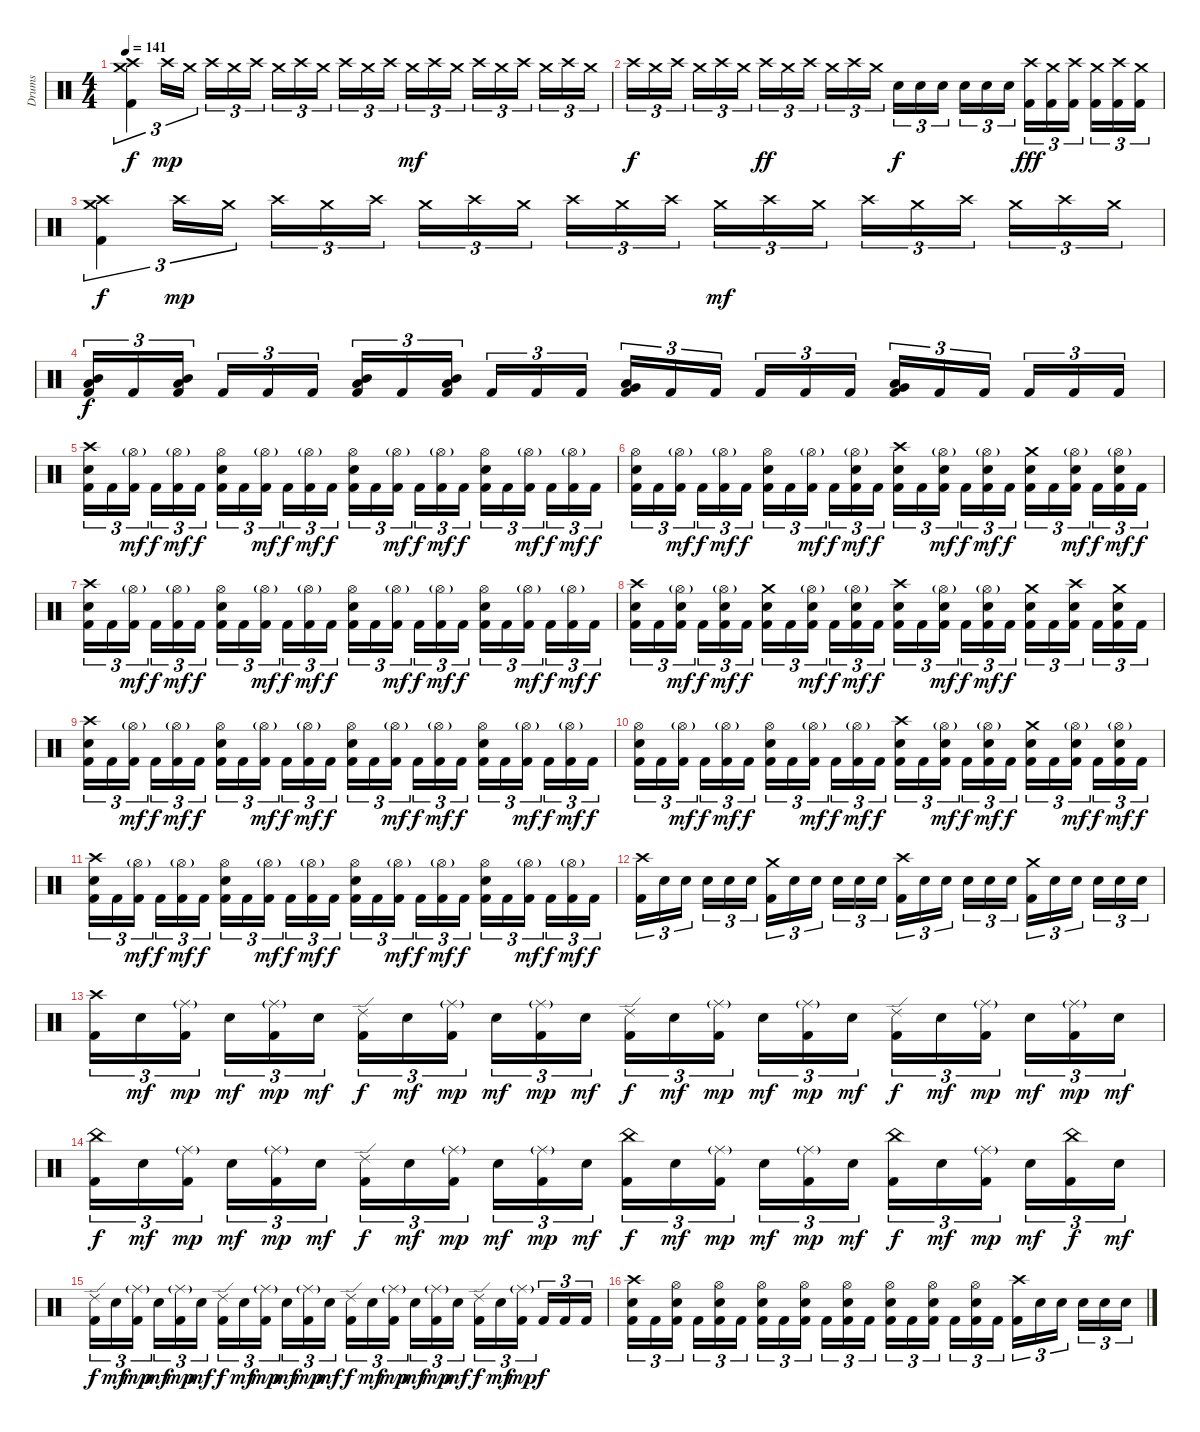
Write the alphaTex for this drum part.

\track ("Drums" "Drums") {instrument percussion}
\staff {score}
\articulation defaults
\ts (4 4)
\tempo 141
\clef neutral
\ks c
("Crash medium (hit)" "Crash high (hit)" "Kick (hit) 2").4{tu (3 2) dy f} "Crash high (hit)".16{tu (3 2) dy mp} "Crash medium (hit)".16{tu (3 2)} "Crash high (hit)".16{tu (3 2)} "Crash medium (hit)".16{tu (3 2)} "Crash high (hit)".16{tu (3 2)} "Crash medium (hit)".16{tu (3 2)} "Crash high (hit)".16{tu (3 2)} "Crash medium (hit)".16{tu (3 2)} "Crash high (hit)".16{tu (3 2)} "Crash medium (hit)".16{tu (3 2)} "Crash high (hit)".16{tu (3 2)} "Crash medium (hit)".16{tu (3 2) dy mf} "Crash high (hit)".16{tu (3 2)} "Crash medium (hit)".16{tu (3 2)} "Crash high (hit)".16{tu (3 2)} "Crash medium (hit)".16{tu (3 2)} "Crash high (hit)".16{tu (3 2)} "Crash medium (hit)".16{tu (3 2)} "Crash high (hit)".16{tu (3 2)} "Crash medium (hit)".16{tu (3 2)} |
"Crash high (hit)".16{tu (3 2) dy f} "Crash medium (hit)".16{tu (3 2)} "Crash high (hit)".16{tu (3 2)} "Crash medium (hit)".16{tu (3 2)} "Crash high (hit)".16{tu (3 2)} "Crash medium (hit)".16{tu (3 2)} "Crash high (hit)".16{tu (3 2) dy ff} "Crash medium (hit)".16{tu (3 2)} "Crash high (hit)".16{tu (3 2)} "Crash medium (hit)".16{tu (3 2)} "Crash high (hit)".16{tu (3 2)} "Crash medium (hit)".16{tu (3 2)} "Electric Snare (hit)".16{tu (3 2) dy f} "Electric Snare (hit)".16{tu (3 2)} "Electric Snare (hit)".16{tu (3 2)} "Electric Snare (hit)".16{tu (3 2)} "Electric Snare (hit)".16{tu (3 2)} "Electric Snare (hit)".16{tu (3 2)} ("Crash high (hit)" "Kick (hit) 2").16{tu (3 2) dy fff} ("Crash medium (hit)" "Kick (hit) 2").16{tu (3 2)} ("Crash high (hit)" "Kick (hit) 2").16{tu (3 2)} ("Crash medium (hit)" "Kick (hit) 2").16{tu (3 2)} ("Crash high (hit)" "Kick (hit) 2").16{tu (3 2)} ("Crash medium (hit)" "Kick (hit) 2").16{tu (3 2)} |
("Crash medium (hit)" "Crash high (hit)" "Kick (hit) 2").4{tu (3 2) dy f} "Crash high (hit)".16{tu (3 2) dy mp} "Crash medium (hit)".16{tu (3 2)} "Crash high (hit)".16{tu (3 2)} "Crash medium (hit)".16{tu (3 2)} "Crash high (hit)".16{tu (3 2)} "Crash medium (hit)".16{tu (3 2)} "Crash high (hit)".16{tu (3 2)} "Crash medium (hit)".16{tu (3 2)} "Crash high (hit)".16{tu (3 2)} "Crash medium (hit)".16{tu (3 2)} "Crash high (hit)".16{tu (3 2)} "Crash medium (hit)".16{tu (3 2) dy mf} "Crash high (hit)".16{tu (3 2)} "Crash medium (hit)".16{tu (3 2)} "Crash high (hit)".16{tu (3 2)} "Crash medium (hit)".16{tu (3 2)} "Crash high (hit)".16{tu (3 2)} "Crash medium (hit)".16{tu (3 2)} "Crash high (hit)".16{tu (3 2)} "Crash medium (hit)".16{tu (3 2)} |
("Mid Tom (hit)" "Low Tom (hit)" "Kick (hit) 2").16{tu (3 2) dy f} "Kick (hit) 2".16{tu (3 2)} ("Mid Tom (hit)" "Low Tom (hit)" "Kick (hit) 2").16{tu (3 2)} "Kick (hit) 2".16{tu (3 2)} "Kick (hit) 2".16{tu (3 2)} "Kick (hit) 2".16{tu (3 2)} ("Mid Tom (hit)" "Low Tom (hit)" "Kick (hit) 2").16{tu (3 2)} "Kick (hit) 2".16{tu (3 2)} ("Mid Tom (hit)" "Low Tom (hit)" "Kick (hit) 2").16{tu (3 2)} "Kick (hit) 2".16{tu (3 2)} "Kick (hit) 2".16{tu (3 2)} "Kick (hit) 2".16{tu (3 2)} ("Low Tom (hit)" "Very Low Tom (hit)" "Kick (hit) 2").16{tu (3 2)} "Kick (hit) 2".16{tu (3 2)} "Kick (hit) 2".16{tu (3 2)} "Kick (hit) 2".16{tu (3 2)} "Kick (hit) 2".16{tu (3 2)} "Kick (hit) 2".16{tu (3 2)} ("Very Low Tom (hit)" "Low Floor Tom (hit)" "Kick (hit) 2").16{tu (3 2)} "Kick (hit) 2".16{tu (3 2)} "Kick (hit) 2".16{tu (3 2)} "Kick (hit) 2".16{tu (3 2)} "Kick (hit) 2".16{tu (3 2)} "Kick (hit) 2".16{tu (3 2)} |
("Crash high (hit)" "Electric Snare (hit)" "Kick (hit) 2").16{tu (3 2)} "Kick (hit) 2".16{tu (3 2)} ("Hi-Hat (open)"{g} "Kick (hit) 2").16{tu (3 2) dy mf} "Kick (hit) 2".16{tu (3 2) dy f} ("Hi-Hat (open)"{g} "Kick (hit) 2").16{tu (3 2) dy mf} "Kick (hit) 2".16{tu (3 2) dy f} ("Hi-Hat (open)" "Electric Snare (hit)" "Kick (hit) 2").16{tu (3 2)} "Kick (hit) 2".16{tu (3 2)} ("Hi-Hat (open)"{g} "Kick (hit) 2").16{tu (3 2) dy mf} "Kick (hit) 2".16{tu (3 2) dy f} ("Hi-Hat (open)"{g} "Kick (hit) 2").16{tu (3 2) dy mf} "Kick (hit) 2".16{tu (3 2) dy f} ("Hi-Hat (open)" "Electric Snare (hit)" "Kick (hit) 2").16{tu (3 2)} "Kick (hit) 2".16{tu (3 2)} ("Hi-Hat (open)"{g} "Kick (hit) 2").16{tu (3 2) dy mf} "Kick (hit) 2".16{tu (3 2) dy f} ("Hi-Hat (open)"{g} "Kick (hit) 2").16{tu (3 2) dy mf} "Kick (hit) 2".16{tu (3 2) dy f} ("Hi-Hat (open)" "Electric Snare (hit)" "Kick (hit) 2").16{tu (3 2)} "Kick (hit) 2".16{tu (3 2)} ("Hi-Hat (open)"{g} "Kick (hit) 2").16{tu (3 2) dy mf} "Kick (hit) 2".16{tu (3 2) dy f} ("Hi-Hat (open)"{g} "Kick (hit) 2").16{tu (3 2) dy mf} "Kick (hit) 2".16{tu (3 2) dy f} |
("Hi-Hat (open)" "Electric Snare (hit)" "Kick (hit) 2").16{tu (3 2)} "Kick (hit) 2".16{tu (3 2)} ("Hi-Hat (open)"{g} "Kick (hit) 2").16{tu (3 2) dy mf} "Kick (hit) 2".16{tu (3 2) dy f} ("Hi-Hat (open)"{g} "Kick (hit) 2").16{tu (3 2) dy mf} "Kick (hit) 2".16{tu (3 2) dy f} ("Hi-Hat (open)" "Electric Snare (hit)" "Kick (hit) 2").16{tu (3 2)} "Kick (hit) 2".16{tu (3 2)} ("Hi-Hat (open)"{g} "Kick (hit) 2").16{tu (3 2) dy mf} "Kick (hit) 2".16{tu (3 2) dy f} ("Hi-Hat (open)"{g} "Electric Snare (hit)" "Kick (hit) 2").16{tu (3 2) dy mf} "Kick (hit) 2".16{tu (3 2) dy f} ("Crash high (hit)" "Electric Snare (hit)" "Kick (hit) 2").16{tu (3 2)} "Kick (hit) 2".16{tu (3 2)} ("Hi-Hat (open)"{g} "Electric Snare (hit)" "Kick (hit) 2").16{tu (3 2) dy mf} "Kick (hit) 2".16{tu (3 2) dy f} ("Hi-Hat (open)"{g} "Electric Snare (hit)" "Kick (hit) 2").16{tu (3 2) dy mf} "Kick (hit) 2".16{tu (3 2) dy f} ("Crash medium (hit)" "Electric Snare (hit)" "Kick (hit) 2").16{tu (3 2)} "Kick (hit) 2".16{tu (3 2)} ("Hi-Hat (open)"{g} "Electric Snare (hit)" "Kick (hit) 2").16{tu (3 2) dy mf} "Kick (hit) 2".16{tu (3 2) dy f} ("Hi-Hat (open)"{g} "Electric Snare (hit)" "Kick (hit) 2").16{tu (3 2) dy mf} "Kick (hit) 2".16{tu (3 2) dy f} |
("Crash high (hit)" "Electric Snare (hit)" "Kick (hit) 2").16{tu (3 2)} "Kick (hit) 2".16{tu (3 2)} ("Hi-Hat (open)"{g} "Kick (hit) 2").16{tu (3 2) dy mf} "Kick (hit) 2".16{tu (3 2) dy f} ("Hi-Hat (open)"{g} "Kick (hit) 2").16{tu (3 2) dy mf} "Kick (hit) 2".16{tu (3 2) dy f} ("Hi-Hat (open)" "Electric Snare (hit)" "Kick (hit) 2").16{tu (3 2)} "Kick (hit) 2".16{tu (3 2)} ("Hi-Hat (open)"{g} "Kick (hit) 2").16{tu (3 2) dy mf} "Kick (hit) 2".16{tu (3 2) dy f} ("Hi-Hat (open)"{g} "Kick (hit) 2").16{tu (3 2) dy mf} "Kick (hit) 2".16{tu (3 2) dy f} ("Hi-Hat (open)" "Electric Snare (hit)" "Kick (hit) 2").16{tu (3 2)} "Kick (hit) 2".16{tu (3 2)} ("Hi-Hat (open)"{g} "Kick (hit) 2").16{tu (3 2) dy mf} "Kick (hit) 2".16{tu (3 2) dy f} ("Hi-Hat (open)"{g} "Kick (hit) 2").16{tu (3 2) dy mf} "Kick (hit) 2".16{tu (3 2) dy f} ("Hi-Hat (open)" "Electric Snare (hit)" "Kick (hit) 2").16{tu (3 2)} "Kick (hit) 2".16{tu (3 2)} ("Hi-Hat (open)"{g} "Kick (hit) 2").16{tu (3 2) dy mf} "Kick (hit) 2".16{tu (3 2) dy f} ("Hi-Hat (open)"{g} "Kick (hit) 2").16{tu (3 2) dy mf} "Kick (hit) 2".16{tu (3 2) dy f} |
("Crash high (hit)" "Electric Snare (hit)" "Kick (hit) 2").16{tu (3 2)} "Kick (hit) 2".16{tu (3 2)} ("Hi-Hat (open)"{g} "Electric Snare (hit)" "Kick (hit) 2").16{tu (3 2) dy mf} "Kick (hit) 2".16{tu (3 2) dy f} ("Hi-Hat (open)"{g} "Electric Snare (hit)" "Kick (hit) 2").16{tu (3 2) dy mf} "Kick (hit) 2".16{tu (3 2) dy f} ("Crash medium (hit)" "Electric Snare (hit)" "Kick (hit) 2").16{tu (3 2)} "Kick (hit) 2".16{tu (3 2)} ("Hi-Hat (open)"{g} "Electric Snare (hit)" "Kick (hit) 2").16{tu (3 2) dy mf} "Kick (hit) 2".16{tu (3 2) dy f} ("Hi-Hat (open)"{g} "Electric Snare (hit)" "Kick (hit) 2").16{tu (3 2) dy mf} "Kick (hit) 2".16{tu (3 2) dy f} ("Crash high (hit)" "Electric Snare (hit)" "Kick (hit) 2").16{tu (3 2)} "Kick (hit) 2".16{tu (3 2)} ("Hi-Hat (open)"{g} "Electric Snare (hit)" "Kick (hit) 2").16{tu (3 2) dy mf} "Kick (hit) 2".16{tu (3 2) dy f} ("Hi-Hat (open)"{g} "Electric Snare (hit)" "Kick (hit) 2").16{tu (3 2) dy mf} "Kick (hit) 2".16{tu (3 2) dy f} ("Crash medium (hit)" "Electric Snare (hit)" "Kick (hit) 2").16{tu (3 2)} "Kick (hit) 2".16{tu (3 2)} ("Crash high (hit)" "Electric Snare (hit)" "Kick (hit) 2").16{tu (3 2)} "Kick (hit) 2".16{tu (3 2)} ("Crash medium (hit)" "Electric Snare (hit)" "Kick (hit) 2").16{tu (3 2)} "Kick (hit) 2".16{tu (3 2)} |
("Crash high (hit)" "Electric Snare (hit)" "Kick (hit) 2").16{tu (3 2)} "Kick (hit) 2".16{tu (3 2)} ("Hi-Hat (open)"{g} "Kick (hit) 2").16{tu (3 2) dy mf} "Kick (hit) 2".16{tu (3 2) dy f} ("Hi-Hat (open)"{g} "Kick (hit) 2").16{tu (3 2) dy mf} "Kick (hit) 2".16{tu (3 2) dy f} ("Hi-Hat (open)" "Electric Snare (hit)" "Kick (hit) 2").16{tu (3 2)} "Kick (hit) 2".16{tu (3 2)} ("Hi-Hat (open)"{g} "Kick (hit) 2").16{tu (3 2) dy mf} "Kick (hit) 2".16{tu (3 2) dy f} ("Hi-Hat (open)"{g} "Kick (hit) 2").16{tu (3 2) dy mf} "Kick (hit) 2".16{tu (3 2) dy f} ("Hi-Hat (open)" "Electric Snare (hit)" "Kick (hit) 2").16{tu (3 2)} "Kick (hit) 2".16{tu (3 2)} ("Hi-Hat (open)"{g} "Kick (hit) 2").16{tu (3 2) dy mf} "Kick (hit) 2".16{tu (3 2) dy f} ("Hi-Hat (open)"{g} "Kick (hit) 2").16{tu (3 2) dy mf} "Kick (hit) 2".16{tu (3 2) dy f} ("Hi-Hat (open)" "Electric Snare (hit)" "Kick (hit) 2").16{tu (3 2)} "Kick (hit) 2".16{tu (3 2)} ("Hi-Hat (open)"{g} "Kick (hit) 2").16{tu (3 2) dy mf} "Kick (hit) 2".16{tu (3 2) dy f} ("Hi-Hat (open)"{g} "Kick (hit) 2").16{tu (3 2) dy mf} "Kick (hit) 2".16{tu (3 2) dy f} |
("Hi-Hat (open)" "Electric Snare (hit)" "Kick (hit) 2").16{tu (3 2)} "Kick (hit) 2".16{tu (3 2)} ("Hi-Hat (open)"{g} "Kick (hit) 2").16{tu (3 2) dy mf} "Kick (hit) 2".16{tu (3 2) dy f} ("Hi-Hat (open)"{g} "Kick (hit) 2").16{tu (3 2) dy mf} "Kick (hit) 2".16{tu (3 2) dy f} ("Hi-Hat (open)" "Electric Snare (hit)" "Kick (hit) 2").16{tu (3 2)} "Kick (hit) 2".16{tu (3 2)} ("Hi-Hat (open)"{g} "Kick (hit) 2").16{tu (3 2) dy mf} "Kick (hit) 2".16{tu (3 2) dy f} ("Hi-Hat (open)"{g} "Kick (hit) 2").16{tu (3 2) dy mf} "Kick (hit) 2".16{tu (3 2) dy f} ("Crash high (hit)" "Electric Snare (hit)" "Kick (hit) 2").16{tu (3 2)} "Kick (hit) 2".16{tu (3 2)} ("Hi-Hat (open)"{g} "Electric Snare (hit)" "Kick (hit) 2").16{tu (3 2) dy mf} "Kick (hit) 2".16{tu (3 2) dy f} ("Hi-Hat (open)"{g} "Electric Snare (hit)" "Kick (hit) 2").16{tu (3 2) dy mf} "Kick (hit) 2".16{tu (3 2) dy f} ("Crash medium (hit)" "Electric Snare (hit)" "Kick (hit) 2").16{tu (3 2)} "Kick (hit) 2".16{tu (3 2)} ("Hi-Hat (open)"{g} "Electric Snare (hit)" "Kick (hit) 2").16{tu (3 2) dy mf} "Kick (hit) 2".16{tu (3 2) dy f} ("Hi-Hat (open)"{g} "Electric Snare (hit)" "Kick (hit) 2").16{tu (3 2) dy mf} "Kick (hit) 2".16{tu (3 2) dy f} |
("Crash high (hit)" "Electric Snare (hit)" "Kick (hit) 2").16{tu (3 2)} "Kick (hit) 2".16{tu (3 2)} ("Hi-Hat (open)"{g} "Kick (hit) 2").16{tu (3 2) dy mf} "Kick (hit) 2".16{tu (3 2) dy f} ("Hi-Hat (open)"{g} "Kick (hit) 2").16{tu (3 2) dy mf} "Kick (hit) 2".16{tu (3 2) dy f} ("Hi-Hat (open)" "Electric Snare (hit)" "Kick (hit) 2").16{tu (3 2)} "Kick (hit) 2".16{tu (3 2)} ("Hi-Hat (open)"{g} "Kick (hit) 2").16{tu (3 2) dy mf} "Kick (hit) 2".16{tu (3 2) dy f} ("Hi-Hat (open)"{g} "Kick (hit) 2").16{tu (3 2) dy mf} "Kick (hit) 2".16{tu (3 2) dy f} ("Hi-Hat (open)" "Electric Snare (hit)" "Kick (hit) 2").16{tu (3 2)} "Kick (hit) 2".16{tu (3 2)} ("Hi-Hat (open)"{g} "Kick (hit) 2").16{tu (3 2) dy mf} "Kick (hit) 2".16{tu (3 2) dy f} ("Hi-Hat (open)"{g} "Kick (hit) 2").16{tu (3 2) dy mf} "Kick (hit) 2".16{tu (3 2) dy f} ("Hi-Hat (open)" "Electric Snare (hit)" "Kick (hit) 2").16{tu (3 2)} "Kick (hit) 2".16{tu (3 2)} ("Hi-Hat (open)"{g} "Kick (hit) 2").16{tu (3 2) dy mf} "Kick (hit) 2".16{tu (3 2) dy f} ("Hi-Hat (open)"{g} "Kick (hit) 2").16{tu (3 2) dy mf} "Kick (hit) 2".16{tu (3 2) dy f} |
("Crash high (hit)" "Kick (hit) 2").16{tu (3 2)} "Electric Snare (hit)".16{tu (3 2)} "Electric Snare (hit)".16{tu (3 2)} "Electric Snare (hit)".16{tu (3 2)} "Electric Snare (hit)".16{tu (3 2)} "Electric Snare (hit)".16{tu (3 2)} ("Crash medium (hit)" "Kick (hit) 2").16{tu (3 2)} "Electric Snare (hit)".16{tu (3 2)} "Electric Snare (hit)".16{tu (3 2)} "Electric Snare (hit)".16{tu (3 2)} "Electric Snare (hit)".16{tu (3 2)} "Electric Snare (hit)".16{tu (3 2)} ("Crash high (hit)" "Kick (hit) 2").16{tu (3 2)} "Electric Snare (hit)".16{tu (3 2)} "Electric Snare (hit)".16{tu (3 2)} "Electric Snare (hit)".16{tu (3 2)} "Electric Snare (hit)".16{tu (3 2)} "Electric Snare (hit)".16{tu (3 2)} ("Crash medium (hit)" "Kick (hit) 2").16{tu (3 2)} "Electric Snare (hit)".16{tu (3 2)} "Electric Snare (hit)".16{tu (3 2)} "Electric Snare (hit)".16{tu (3 2)} "Electric Snare (hit)".16{tu (3 2)} "Electric Snare (hit)".16{tu (3 2)} |
("Crash high (hit)" "Kick (hit) 2").16{tu (3 2)} "Electric Snare (hit)".16{tu (3 2) dy mf} ("Ride (middle)"{g} "Kick (hit) 2").16{tu (3 2) dy mp} "Electric Snare (hit)".16{tu (3 2) dy mf} ("Ride (middle)"{g} "Kick (hit) 2").16{tu (3 2) dy mp} "Electric Snare (hit)".16{tu (3 2) dy mf} ("Ride (edge) 2" "Kick (hit) 2").16{tu (3 2) dy f} "Electric Snare (hit)".16{tu (3 2) dy mf} ("Ride (middle)"{g} "Kick (hit) 2").16{tu (3 2) dy mp} "Electric Snare (hit)".16{tu (3 2) dy mf} ("Ride (middle)"{g} "Kick (hit) 2").16{tu (3 2) dy mp} "Electric Snare (hit)".16{tu (3 2) dy mf} ("Ride (edge) 2" "Kick (hit) 2").16{tu (3 2) dy f} "Electric Snare (hit)".16{tu (3 2) dy mf} ("Ride (middle)"{g} "Kick (hit) 2").16{tu (3 2) dy mp} "Electric Snare (hit)".16{tu (3 2) dy mf} ("Ride (middle)"{g} "Kick (hit) 2").16{tu (3 2) dy mp} "Electric Snare (hit)".16{tu (3 2) dy mf} ("Ride (edge) 2" "Kick (hit) 2").16{tu (3 2) dy f} "Electric Snare (hit)".16{tu (3 2) dy mf} ("Ride (middle)"{g} "Kick (hit) 2").16{tu (3 2) dy mp} "Electric Snare (hit)".16{tu (3 2) dy mf} ("Ride (middle)"{g} "Kick (hit) 2").16{tu (3 2) dy mp} "Electric Snare (hit)".16{tu (3 2) dy mf} |
("China (hit)" "Kick (hit) 2").16{tu (3 2) dy f} "Electric Snare (hit)".16{tu (3 2) dy mf} ("Ride (middle)"{g} "Kick (hit) 2").16{tu (3 2) dy mp} "Electric Snare (hit)".16{tu (3 2) dy mf} ("Ride (middle)"{g} "Kick (hit) 2").16{tu (3 2) dy mp} "Electric Snare (hit)".16{tu (3 2) dy mf} ("Ride (edge) 2" "Kick (hit) 2").16{tu (3 2) dy f} "Electric Snare (hit)".16{tu (3 2) dy mf} ("Ride (middle)"{g} "Kick (hit) 2").16{tu (3 2) dy mp} "Electric Snare (hit)".16{tu (3 2) dy mf} ("Ride (middle)"{g} "Kick (hit) 2").16{tu (3 2) dy mp} "Electric Snare (hit)".16{tu (3 2) dy mf} ("China (hit)" "Kick (hit) 2").16{tu (3 2) dy f} "Electric Snare (hit)".16{tu (3 2) dy mf} ("Ride (middle)"{g} "Kick (hit) 2").16{tu (3 2) dy mp} "Electric Snare (hit)".16{tu (3 2) dy mf} ("Ride (middle)"{g} "Kick (hit) 2").16{tu (3 2) dy mp} "Electric Snare (hit)".16{tu (3 2) dy mf} ("China (hit)" "Kick (hit) 2").16{tu (3 2) dy f} "Electric Snare (hit)".16{tu (3 2) dy mf} ("Ride (middle)"{g} "Kick (hit) 2").16{tu (3 2) dy mp} "Electric Snare (hit)".16{tu (3 2) dy mf} ("China (hit)" "Kick (hit) 2").16{tu (3 2) dy f} "Electric Snare (hit)".16{tu (3 2) dy mf} |
("Ride (edge) 2" "Kick (hit) 2").16{tu (3 2) dy f} "Electric Snare (hit)".16{tu (3 2) dy mf} ("Ride (middle)"{g} "Kick (hit) 2").16{tu (3 2) dy mp} "Electric Snare (hit)".16{tu (3 2) dy mf} ("Ride (middle)"{g} "Kick (hit) 2").16{tu (3 2) dy mp} "Electric Snare (hit)".16{tu (3 2) dy mf} ("Ride (edge) 2" "Kick (hit) 2").16{tu (3 2) dy f} "Electric Snare (hit)".16{tu (3 2) dy mf} ("Ride (middle)"{g} "Kick (hit) 2").16{tu (3 2) dy mp} "Electric Snare (hit)".16{tu (3 2) dy mf} ("Ride (middle)"{g} "Kick (hit) 2").16{tu (3 2) dy mp} "Electric Snare (hit)".16{tu (3 2) dy mf} ("Ride (edge) 2" "Kick (hit) 2").16{tu (3 2) dy f} "Electric Snare (hit)".16{tu (3 2) dy mf} ("Ride (middle)"{g} "Kick (hit) 2").16{tu (3 2) dy mp} "Electric Snare (hit)".16{tu (3 2) dy mf} ("Ride (middle)"{g} "Kick (hit) 2").16{tu (3 2) dy mp} "Electric Snare (hit)".16{tu (3 2) dy mf} ("Ride (edge) 2" "Kick (hit) 2").16{tu (3 2) dy f} "Electric Snare (hit)".16{tu (3 2) dy mf} ("Ride (middle)"{g} "Kick (hit) 2").16{tu (3 2) dy mp} "Kick (hit) 2".16{tu (3 2) dy f} "Kick (hit) 2".16{tu (3 2)} "Kick (hit) 2".16{tu (3 2)} |
("Crash high (hit)" "Electric Snare (hit)" "Kick (hit) 2").16{tu (3 2)} "Kick (hit) 2".16{tu (3 2)} ("Hi-Hat (open)" "Electric Snare (hit)" "Kick (hit) 2").16{tu (3 2)} "Kick (hit) 2".16{tu (3 2)} ("Hi-Hat (open)" "Electric Snare (hit)" "Kick (hit) 2").16{tu (3 2)} "Kick (hit) 2".16{tu (3 2)} ("Hi-Hat (open)" "Electric Snare (hit)" "Kick (hit) 2").16{tu (3 2)} "Kick (hit) 2".16{tu (3 2)} ("Hi-Hat (open)" "Electric Snare (hit)" "Kick (hit) 2").16{tu (3 2)} "Kick (hit) 2".16{tu (3 2)} ("Hi-Hat (open)" "Electric Snare (hit)" "Kick (hit) 2").16{tu (3 2)} "Kick (hit) 2".16{tu (3 2)} ("Hi-Hat (open)" "Electric Snare (hit)" "Kick (hit) 2").16{tu (3 2)} "Kick (hit) 2".16{tu (3 2)} ("Hi-Hat (open)" "Electric Snare (hit)" "Kick (hit) 2").16{tu (3 2)} "Kick (hit) 2".16{tu (3 2)} ("Hi-Hat (open)" "Electric Snare (hit)" "Kick (hit) 2").16{tu (3 2)} "Kick (hit) 2".16{tu (3 2)} ("Crash high (hit)" "Kick (hit) 2").16{tu (3 2)} "Electric Snare (hit)".16{tu (3 2)} "Electric Snare (hit)".16{tu (3 2)} "Electric Snare (hit)".16{tu (3 2)} "Electric Snare (hit)".16{tu (3 2)} "Electric Snare (hit)".16{tu (3 2)}
